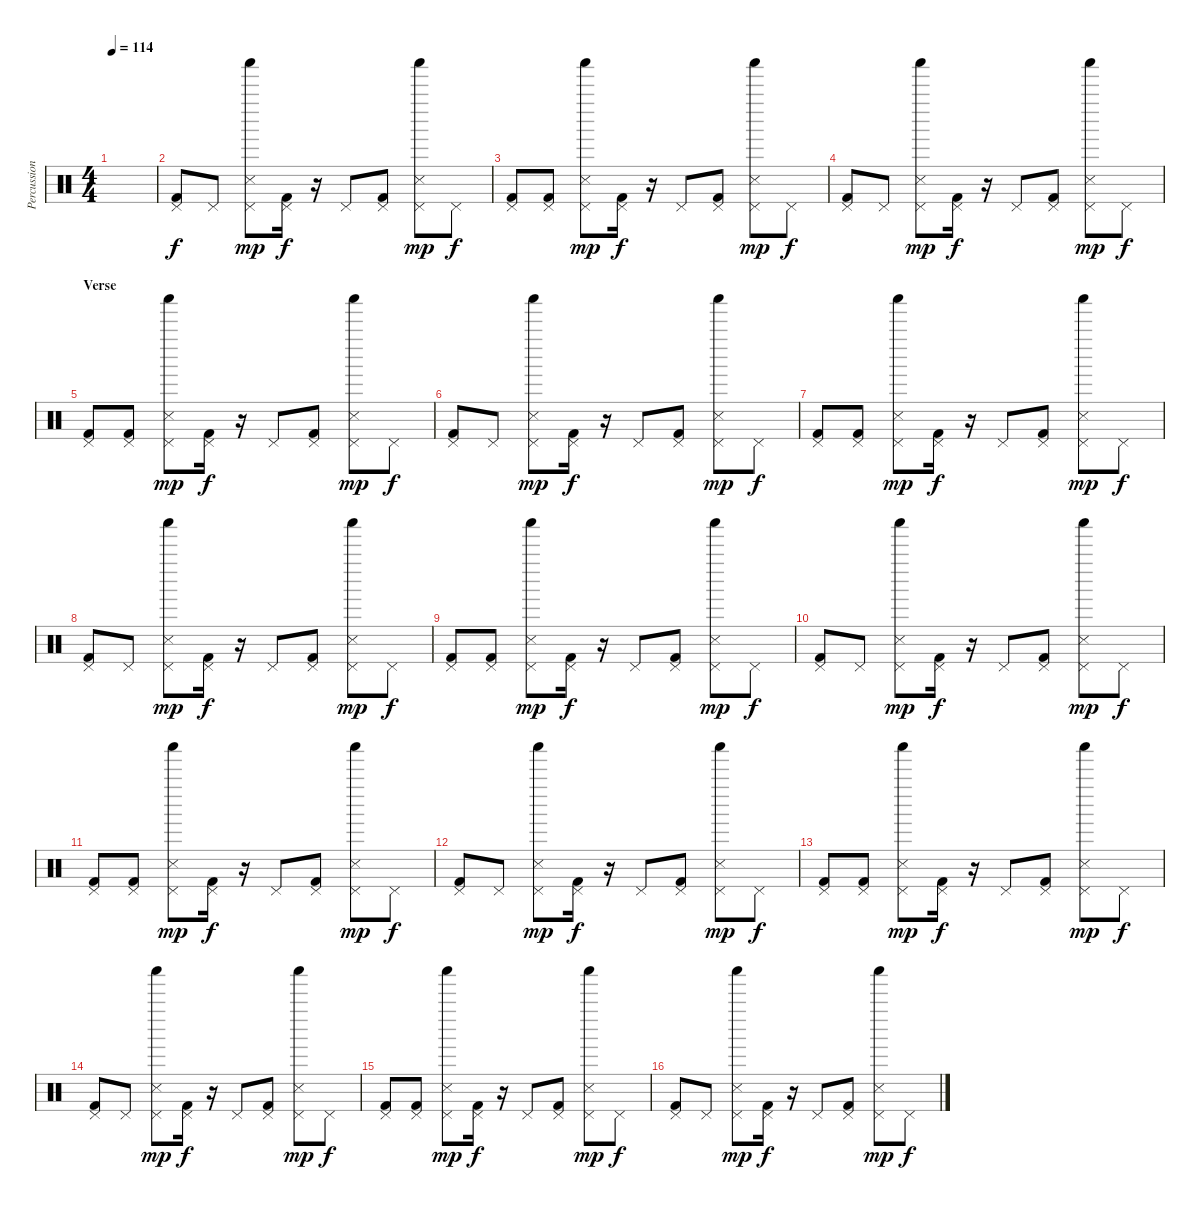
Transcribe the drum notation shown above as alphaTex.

\track ("Percussion" "Percussion") {instrument percussion}
\staff {score}
\articulation defaults
\ts (4 4)
\tempo 114
\clef neutral
\ks c
|
("Pedal Hi-Hat (hit)" "Kick (hit) 2").8 "Pedal Hi-Hat (hit)".8 ("Pedal Hi-Hat (hit)" "Snare (side stick) 3" "Shaker (hit)").8{dy mp} ("Pedal Hi-Hat (hit)" "Kick (hit) 2").16{dy f} r.16 "Pedal Hi-Hat (hit)".8 ("Pedal Hi-Hat (hit)" "Kick (hit) 2").8 ("Pedal Hi-Hat (hit)" "Snare (side stick) 3" "Shaker (hit)").8{dy mp} "Pedal Hi-Hat (hit)".8{dy f} |
("Pedal Hi-Hat (hit)" "Kick (hit) 2").8 ("Pedal Hi-Hat (hit)" "Kick (hit) 2").8 ("Pedal Hi-Hat (hit)" "Snare (side stick) 3" "Shaker (hit)").8{dy mp} ("Pedal Hi-Hat (hit)" "Kick (hit) 2").16{dy f} r.16 "Pedal Hi-Hat (hit)".8 ("Pedal Hi-Hat (hit)" "Kick (hit) 2").8 ("Pedal Hi-Hat (hit)" "Snare (side stick) 3" "Shaker (hit)").8{dy mp} "Pedal Hi-Hat (hit)".8{dy f} |
("Pedal Hi-Hat (hit)" "Kick (hit) 2").8 "Pedal Hi-Hat (hit)".8 ("Pedal Hi-Hat (hit)" "Snare (side stick) 3" "Shaker (hit)").8{dy mp} ("Pedal Hi-Hat (hit)" "Kick (hit) 2").16{dy f} r.16 "Pedal Hi-Hat (hit)".8 ("Pedal Hi-Hat (hit)" "Kick (hit) 2").8 ("Pedal Hi-Hat (hit)" "Snare (side stick) 3" "Shaker (hit)").8{dy mp} "Pedal Hi-Hat (hit)".8{dy f} |
\section ("" "Verse")
("Pedal Hi-Hat (hit)" "Kick (hit) 2").8 ("Pedal Hi-Hat (hit)" "Kick (hit) 2").8 ("Pedal Hi-Hat (hit)" "Snare (side stick) 3" "Shaker (hit)").8{dy mp} ("Pedal Hi-Hat (hit)" "Kick (hit) 2").16{dy f} r.16 "Pedal Hi-Hat (hit)".8 ("Pedal Hi-Hat (hit)" "Kick (hit) 2").8 ("Pedal Hi-Hat (hit)" "Snare (side stick) 3" "Shaker (hit)").8{dy mp} "Pedal Hi-Hat (hit)".8{dy f} |
("Pedal Hi-Hat (hit)" "Kick (hit) 2").8 "Pedal Hi-Hat (hit)".8 ("Pedal Hi-Hat (hit)" "Snare (side stick) 3" "Shaker (hit)").8{dy mp} ("Pedal Hi-Hat (hit)" "Kick (hit) 2").16{dy f} r.16 "Pedal Hi-Hat (hit)".8 ("Pedal Hi-Hat (hit)" "Kick (hit) 2").8 ("Pedal Hi-Hat (hit)" "Snare (side stick) 3" "Shaker (hit)").8{dy mp} "Pedal Hi-Hat (hit)".8{dy f} |
("Pedal Hi-Hat (hit)" "Kick (hit) 2").8 ("Pedal Hi-Hat (hit)" "Kick (hit) 2").8 ("Pedal Hi-Hat (hit)" "Snare (side stick) 3" "Shaker (hit)").8{dy mp} ("Pedal Hi-Hat (hit)" "Kick (hit) 2").16{dy f} r.16 "Pedal Hi-Hat (hit)".8 ("Pedal Hi-Hat (hit)" "Kick (hit) 2").8 ("Pedal Hi-Hat (hit)" "Snare (side stick) 3" "Shaker (hit)").8{dy mp} "Pedal Hi-Hat (hit)".8{dy f} |
("Pedal Hi-Hat (hit)" "Kick (hit) 2").8 "Pedal Hi-Hat (hit)".8 ("Pedal Hi-Hat (hit)" "Snare (side stick) 3" "Shaker (hit)").8{dy mp} ("Pedal Hi-Hat (hit)" "Kick (hit) 2").16{dy f} r.16 "Pedal Hi-Hat (hit)".8 ("Pedal Hi-Hat (hit)" "Kick (hit) 2").8 ("Pedal Hi-Hat (hit)" "Snare (side stick) 3" "Shaker (hit)").8{dy mp} "Pedal Hi-Hat (hit)".8{dy f} |
("Pedal Hi-Hat (hit)" "Kick (hit) 2").8 ("Pedal Hi-Hat (hit)" "Kick (hit) 2").8 ("Pedal Hi-Hat (hit)" "Snare (side stick) 3" "Shaker (hit)").8{dy mp} ("Pedal Hi-Hat (hit)" "Kick (hit) 2").16{dy f} r.16 "Pedal Hi-Hat (hit)".8 ("Pedal Hi-Hat (hit)" "Kick (hit) 2").8 ("Pedal Hi-Hat (hit)" "Snare (side stick) 3" "Shaker (hit)").8{dy mp} "Pedal Hi-Hat (hit)".8{dy f} |
("Pedal Hi-Hat (hit)" "Kick (hit) 2").8 "Pedal Hi-Hat (hit)".8 ("Pedal Hi-Hat (hit)" "Snare (side stick) 3" "Shaker (hit)").8{dy mp} ("Pedal Hi-Hat (hit)" "Kick (hit) 2").16{dy f} r.16 "Pedal Hi-Hat (hit)".8 ("Pedal Hi-Hat (hit)" "Kick (hit) 2").8 ("Pedal Hi-Hat (hit)" "Snare (side stick) 3" "Shaker (hit)").8{dy mp} "Pedal Hi-Hat (hit)".8{dy f} |
("Pedal Hi-Hat (hit)" "Kick (hit) 2").8 ("Pedal Hi-Hat (hit)" "Kick (hit) 2").8 ("Pedal Hi-Hat (hit)" "Snare (side stick) 3" "Shaker (hit)").8{dy mp} ("Pedal Hi-Hat (hit)" "Kick (hit) 2").16{dy f} r.16 "Pedal Hi-Hat (hit)".8 ("Pedal Hi-Hat (hit)" "Kick (hit) 2").8 ("Pedal Hi-Hat (hit)" "Snare (side stick) 3" "Shaker (hit)").8{dy mp} "Pedal Hi-Hat (hit)".8{dy f} |
("Pedal Hi-Hat (hit)" "Kick (hit) 2").8 "Pedal Hi-Hat (hit)".8 ("Pedal Hi-Hat (hit)" "Snare (side stick) 3" "Shaker (hit)").8{dy mp} ("Pedal Hi-Hat (hit)" "Kick (hit) 2").16{dy f} r.16 "Pedal Hi-Hat (hit)".8 ("Pedal Hi-Hat (hit)" "Kick (hit) 2").8 ("Pedal Hi-Hat (hit)" "Snare (side stick) 3" "Shaker (hit)").8{dy mp} "Pedal Hi-Hat (hit)".8{dy f} |
("Pedal Hi-Hat (hit)" "Kick (hit) 2").8 ("Pedal Hi-Hat (hit)" "Kick (hit) 2").8 ("Pedal Hi-Hat (hit)" "Snare (side stick) 3" "Shaker (hit)").8{dy mp} ("Pedal Hi-Hat (hit)" "Kick (hit) 2").16{dy f} r.16 "Pedal Hi-Hat (hit)".8 ("Pedal Hi-Hat (hit)" "Kick (hit) 2").8 ("Pedal Hi-Hat (hit)" "Snare (side stick) 3" "Shaker (hit)").8{dy mp} "Pedal Hi-Hat (hit)".8{dy f} |
("Pedal Hi-Hat (hit)" "Kick (hit) 2").8 "Pedal Hi-Hat (hit)".8 ("Pedal Hi-Hat (hit)" "Snare (side stick) 3" "Shaker (hit)").8{dy mp} ("Pedal Hi-Hat (hit)" "Kick (hit) 2").16{dy f} r.16 "Pedal Hi-Hat (hit)".8 ("Pedal Hi-Hat (hit)" "Kick (hit) 2").8 ("Pedal Hi-Hat (hit)" "Snare (side stick) 3" "Shaker (hit)").8{dy mp} "Pedal Hi-Hat (hit)".8{dy f} |
("Pedal Hi-Hat (hit)" "Kick (hit) 2").8 ("Pedal Hi-Hat (hit)" "Kick (hit) 2").8 ("Pedal Hi-Hat (hit)" "Snare (side stick) 3" "Shaker (hit)").8{dy mp} ("Pedal Hi-Hat (hit)" "Kick (hit) 2").16{dy f} r.16 "Pedal Hi-Hat (hit)".8 ("Pedal Hi-Hat (hit)" "Kick (hit) 2").8 ("Pedal Hi-Hat (hit)" "Snare (side stick) 3" "Shaker (hit)").8{dy mp} "Pedal Hi-Hat (hit)".8{dy f} |
("Pedal Hi-Hat (hit)" "Kick (hit) 2").8 "Pedal Hi-Hat (hit)".8 ("Pedal Hi-Hat (hit)" "Snare (side stick) 3" "Shaker (hit)").8{dy mp} ("Pedal Hi-Hat (hit)" "Kick (hit) 2").16{dy f} r.16 "Pedal Hi-Hat (hit)".8 ("Pedal Hi-Hat (hit)" "Kick (hit) 2").8 ("Pedal Hi-Hat (hit)" "Snare (side stick) 3" "Shaker (hit)").8{dy mp} "Pedal Hi-Hat (hit)".8{dy f}
